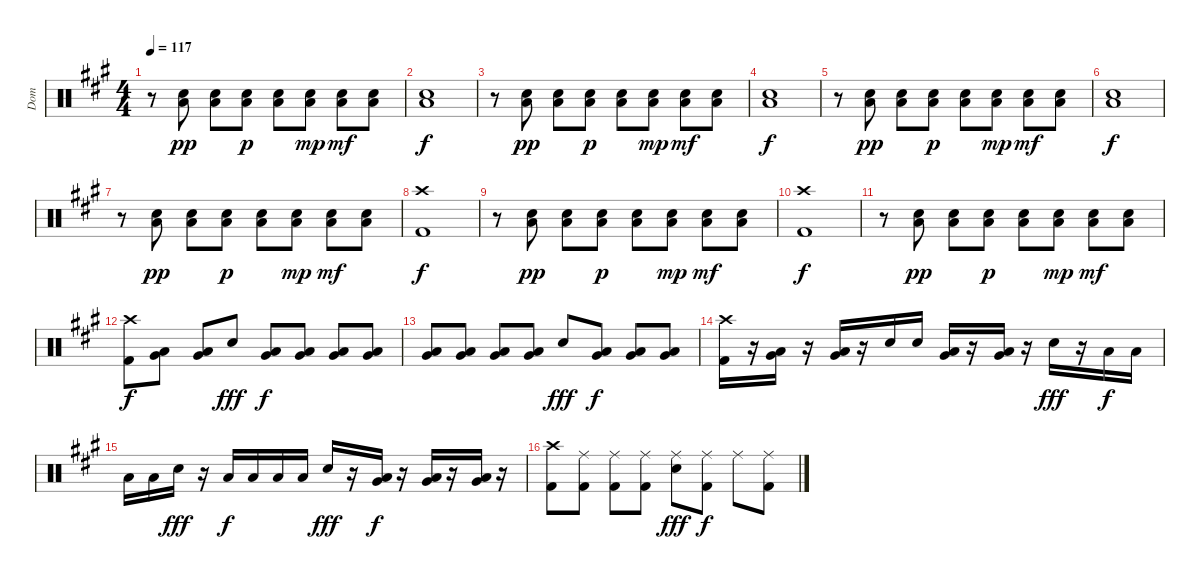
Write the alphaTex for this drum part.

\track ("Dom" "Dom") {instrument percussion}
\staff {score}
\articulation defaults
\ts (4 4)
\tempo 117
\clef neutral
\ks a
r.8{dy f} ("Low Floor Tom (hit)" "Snare (hit) 2").8{dy pp} ("Low Floor Tom (hit)" "Snare (hit) 2").8 ("Low Floor Tom (hit)" "Snare (hit) 2").8{dy p} ("Low Floor Tom (hit)" "Snare (hit) 2").8 ("Low Floor Tom (hit)" "Snare (hit) 2").8{dy mp} ("Low Floor Tom (hit)" "Snare (hit) 2").8{dy mf} ("Low Floor Tom (hit)" "Snare (hit) 2").8 |
("Low Floor Tom (hit)" "Snare (hit) 2").1{dy f} |
r.8 ("Low Floor Tom (hit)" "Snare (hit) 2").8{dy pp} ("Low Floor Tom (hit)" "Snare (hit) 2").8 ("Low Floor Tom (hit)" "Snare (hit) 2").8{dy p} ("Low Floor Tom (hit)" "Snare (hit) 2").8 ("Low Floor Tom (hit)" "Snare (hit) 2").8{dy mp} ("Low Floor Tom (hit)" "Snare (hit) 2").8{dy mf} ("Low Floor Tom (hit)" "Snare (hit) 2").8 |
("Low Floor Tom (hit)" "Snare (hit) 2").1{dy f} |
r.8 ("Low Floor Tom (hit)" "Snare (hit) 2").8{dy pp} ("Low Floor Tom (hit)" "Snare (hit) 2").8 ("Low Floor Tom (hit)" "Snare (hit) 2").8{dy p} ("Low Floor Tom (hit)" "Snare (hit) 2").8 ("Low Floor Tom (hit)" "Snare (hit) 2").8{dy mp} ("Low Floor Tom (hit)" "Snare (hit) 2").8{dy mf} ("Low Floor Tom (hit)" "Snare (hit) 2").8 |
("Low Floor Tom (hit)" "Snare (hit) 2").1{dy f} |
r.8 ("Low Floor Tom (hit)" "Snare (hit) 2").8{dy pp} ("Low Floor Tom (hit)" "Snare (hit) 2").8 ("Low Floor Tom (hit)" "Snare (hit) 2").8{dy p} ("Low Floor Tom (hit)" "Snare (hit) 2").8 ("Low Floor Tom (hit)" "Snare (hit) 2").8{dy mp} ("Low Floor Tom (hit)" "Snare (hit) 2").8{dy mf} ("Low Floor Tom (hit)" "Snare (hit) 2").8 |
("Crash high (hit)" "Kick (hit) 2").1{dy f} |
r.8 ("Low Floor Tom (hit)" "Snare (hit) 2").8{dy pp} ("Low Floor Tom (hit)" "Snare (hit) 2").8 ("Low Floor Tom (hit)" "Snare (hit) 2").8{dy p} ("Low Floor Tom (hit)" "Snare (hit) 2").8 ("Low Floor Tom (hit)" "Snare (hit) 2").8{dy mp} ("Low Floor Tom (hit)" "Snare (hit) 2").8{dy mf} ("Low Floor Tom (hit)" "Snare (hit) 2").8 |
("Crash high (hit)" "Kick (hit) 2").1{dy f} |
r.8 ("Low Floor Tom (hit)" "Snare (hit) 2").8{dy pp} ("Low Floor Tom (hit)" "Snare (hit) 2").8 ("Low Floor Tom (hit)" "Snare (hit) 2").8{dy p} ("Low Floor Tom (hit)" "Snare (hit) 2").8 ("Low Floor Tom (hit)" "Snare (hit) 2").8{dy mp} ("Low Floor Tom (hit)" "Snare (hit) 2").8{dy mf} ("Low Floor Tom (hit)" "Snare (hit) 2").8 |
("Crash high (hit)" "Kick (hit) 2").8{dy f} ("Very Low Tom (hit)" "Low Floor Tom (hit)").8 ("Very Low Tom (hit)" "Low Floor Tom (hit)").8 "Snare (hit) 2".8{dy fff} ("Very Low Tom (hit)" "Low Floor Tom (hit)").8{dy f} ("Very Low Tom (hit)" "Low Floor Tom (hit)").8 ("Very Low Tom (hit)" "Low Floor Tom (hit)").8 ("Very Low Tom (hit)" "Low Floor Tom (hit)").8 |
("Very Low Tom (hit)" "Low Floor Tom (hit)").8 ("Very Low Tom (hit)" "Low Floor Tom (hit)").8 ("Very Low Tom (hit)" "Low Floor Tom (hit)").8 ("Very Low Tom (hit)" "Low Floor Tom (hit)").8 "Snare (hit) 2".8{dy fff} ("Very Low Tom (hit)" "Low Floor Tom (hit)").8{dy f} ("Very Low Tom (hit)" "Low Floor Tom (hit)").8 ("Very Low Tom (hit)" "Low Floor Tom (hit)").8 |
("Crash high (hit)" "Kick (hit) 2").16 r.16 ("Very Low Tom (hit)" "Low Floor Tom (hit)").16 r.16 ("Very Low Tom (hit)" "Low Floor Tom (hit)").16 r.16 "Snare (hit) 2".16 "Snare (hit) 2".16 ("Very Low Tom (hit)" "Low Floor Tom (hit)").16 r.16 ("Very Low Tom (hit)" "Low Floor Tom (hit)").16 r.16 "Snare (hit) 2".16{dy fff} r.16 "Low Floor Tom (hit)".16{dy f} "Low Floor Tom (hit)".16 |
"Low Floor Tom (hit)".16 "Low Floor Tom (hit)".16 "Snare (hit) 2".16{dy fff} r.16 "Low Floor Tom (hit)".16{dy f} "Low Floor Tom (hit)".16 "Low Floor Tom (hit)".16 "Low Floor Tom (hit)".16 "Snare (hit) 2".16{dy fff} r.16 ("Very Low Tom (hit)" "Low Floor Tom (hit)").16{dy f} r.16 ("Very Low Tom (hit)" "Low Floor Tom (hit)").16 r.16 ("Very Low Tom (hit)" "Low Floor Tom (hit)").16 r.16 |
("Crash high (hit)" "Kick (hit) 2").8 ("Ride (middle)" "Kick (hit) 2").8 ("Ride (middle)" "Kick (hit) 2").8 ("Ride (middle)" "Kick (hit) 2").8 ("Ride (middle)" "Snare (hit) 2").8{dy fff} ("Ride (middle)" "Kick (hit) 2").8{dy f} "Ride (middle)".8 ("Ride (middle)" "Kick (hit) 2").8
